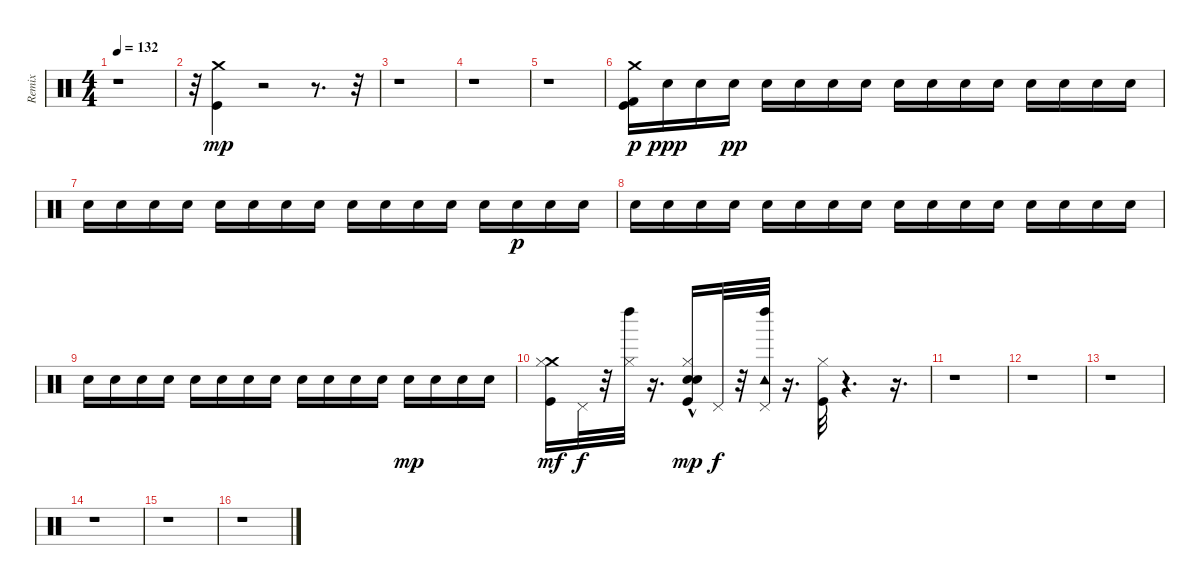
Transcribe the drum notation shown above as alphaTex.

\track ("Remix" "Remix") {instrument percussion}
\staff {score}
\articulation defaults
\ts (4 4)
\tempo 132
\clef neutral
\ks c
r.1{dy mf} |
r.32 ("Crash medium (hit)" "Kick (hit)").4{dy mp} r.2 r.8{d} r.32 |
r.1 |
r.1 |
r.1 |
("Crash medium (hit)" "Kick (hit)" "Kick (hit) 2").16{dy p} "Electric Snare (hit)".16{dy ppp} "Electric Snare (hit)".16 "Electric Snare (hit)".16{dy pp} "Electric Snare (hit)".16 "Electric Snare (hit)".16 "Electric Snare (hit)".16 "Electric Snare (hit)".16 "Electric Snare (hit)".16 "Electric Snare (hit)".16 "Electric Snare (hit)".16 "Electric Snare (hit)".16 "Electric Snare (hit)".16 "Electric Snare (hit)".16 "Electric Snare (hit)".16 "Electric Snare (hit)".16 |
"Electric Snare (hit)".16 "Electric Snare (hit)".16 "Electric Snare (hit)".16 "Electric Snare (hit)".16 "Electric Snare (hit)".16 "Electric Snare (hit)".16 "Electric Snare (hit)".16 "Electric Snare (hit)".16 "Electric Snare (hit)".16 "Electric Snare (hit)".16 "Electric Snare (hit)".16 "Electric Snare (hit)".16 "Electric Snare (hit)".16 "Electric Snare (hit)".16{dy p} "Electric Snare (hit)".16 "Electric Snare (hit)".16 |
"Electric Snare (hit)".16 "Electric Snare (hit)".16 "Electric Snare (hit)".16 "Electric Snare (hit)".16 "Electric Snare (hit)".16 "Electric Snare (hit)".16 "Electric Snare (hit)".16 "Electric Snare (hit)".16 "Electric Snare (hit)".16 "Electric Snare (hit)".16 "Electric Snare (hit)".16 "Electric Snare (hit)".16 "Electric Snare (hit)".16 "Electric Snare (hit)".16 "Electric Snare (hit)".16 "Electric Snare (hit)".16 |
"Electric Snare (hit)".16 "Electric Snare (hit)".16 "Electric Snare (hit)".16 "Electric Snare (hit)".16 "Electric Snare (hit)".16 "Electric Snare (hit)".16 "Electric Snare (hit)".16 "Electric Snare (hit)".16 "Electric Snare (hit)".16 "Electric Snare (hit)".16 "Electric Snare (hit)".16 "Electric Snare (hit)".16 "Electric Snare (hit)".16{dy mp} "Electric Snare (hit)".16 "Electric Snare (hit)".16 "Electric Snare (hit)".16 |
("Crash medium (hit)" "Hi-Hat (closed)" "Kick (hit)").16{dy mf volume 11} "Pedal Hi-Hat (hit)".32{dy f} r.32 ("Left Maraca (hit)" "Hi-Hat (closed)").32 r.16{d} ("Kick (hit)" "Hi-Hat (closed)" "Hand Clap (hit)" "Electric Snare (hit)"{hac}).16{dy mp} "Pedal Hi-Hat (hit)".32{dy f} r.32 ("Tambourine (hit)" "Left Maraca (hit)" "Pedal Hi-Hat (hit)").32 r.16{d} ("Hi-Hat (closed)" "Kick (hit)").32 r.4{d} r.16{d} |
r.1 |
r.1 |
r.1 |
r.1 |
r.1 |
r.1
